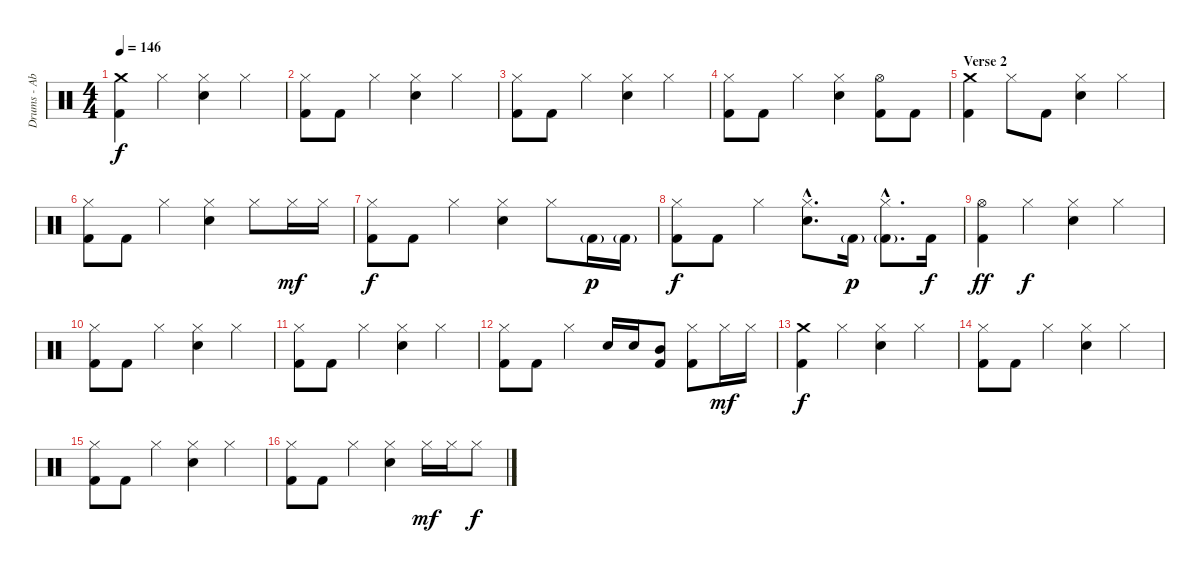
\track ("Drums - Abe Cunningham" "Drums - Ab") {instrument percussion}
\staff {score}
\articulation defaults
\ts (4 4)
\tempo 146
\clef neutral
\ks c
("Crash medium (hit)" "Kick (hit) 2").4{dy f} "Hi-Hat (closed)".4 ("Hi-Hat (closed)" "Electric Snare (hit)").4 "Hi-Hat (closed)".4 |
("Hi-Hat (closed)" "Kick (hit) 2").8 "Kick (hit) 2".8 "Hi-Hat (closed)".4 ("Hi-Hat (closed)" "Electric Snare (hit)").4 "Hi-Hat (closed)".4 |
("Hi-Hat (closed)" "Kick (hit) 2").8 "Kick (hit) 2".8 "Hi-Hat (closed)".4 ("Hi-Hat (closed)" "Electric Snare (hit)").4 "Hi-Hat (closed)".4 |
("Hi-Hat (closed)" "Kick (hit) 2").8 "Kick (hit) 2".8 "Hi-Hat (closed)".4 ("Hi-Hat (closed)" "Electric Snare (hit)").4 ("Hi-Hat (open)" "Kick (hit) 2").8 "Kick (hit) 2".8 |
\section ("" "Verse 2")
("Crash medium (hit)" "Kick (hit) 2").4 "Hi-Hat (closed)".8 "Kick (hit) 2".8 ("Hi-Hat (closed)" "Electric Snare (hit)").4 "Hi-Hat (closed)".4 |
("Hi-Hat (closed)" "Kick (hit) 2").8 "Kick (hit) 2".8 "Hi-Hat (closed)".4 ("Hi-Hat (closed)" "Electric Snare (hit)").4 "Hi-Hat (closed)".8 "Hi-Hat (closed)".16{dy mf} "Hi-Hat (closed)".16 |
("Hi-Hat (closed)" "Kick (hit) 2").8{dy f} "Kick (hit) 2".8 "Hi-Hat (closed)".4 ("Hi-Hat (closed)" "Electric Snare (hit)").4 "Hi-Hat (closed)".8 "Kick (hit) 2"{g}.16{dy p} "Kick (hit) 2"{g}.16 |
("Hi-Hat (closed)" "Kick (hit) 2").8{dy f} "Kick (hit) 2".8 "Hi-Hat (closed)".4 ("Hi-Hat (closed)"{hac} "Electric Snare (hit)"{hac}).8{d} "Kick (hit) 2"{g}.16{dy p} ("Hi-Hat (closed)"{hac} "Kick (hit) 2"{g hac}).8{d} "Kick (hit) 2".16{dy f} |
("Hi-Hat (open)" "Kick (hit) 2").4{dy ff} "Hi-Hat (closed)".4{dy f} ("Hi-Hat (closed)" "Electric Snare (hit)").4 "Hi-Hat (closed)".4 |
("Hi-Hat (closed)" "Kick (hit) 2").8 "Kick (hit) 2".8 "Hi-Hat (closed)".4 ("Hi-Hat (closed)" "Electric Snare (hit)").4 "Hi-Hat (closed)".4 |
("Hi-Hat (closed)" "Kick (hit) 2").8 "Kick (hit) 2".8 "Hi-Hat (closed)".4 ("Hi-Hat (closed)" "Electric Snare (hit)").4 "Hi-Hat (closed)".4 |
("Hi-Hat (closed)" "Kick (hit) 2").8 "Kick (hit) 2".8 "Hi-Hat (closed)".4 "Electric Snare (hit)".16 "Electric Snare (hit)".16 ("Mid Tom (hit)" "Kick (hit) 2").8 ("Hi-Hat (closed)" "Kick (hit) 2").8 "Hi-Hat (closed)".16{dy mf} "Hi-Hat (closed)".16 |
("Crash medium (hit)" "Kick (hit) 2").4{dy f} "Hi-Hat (closed)".4 ("Hi-Hat (closed)" "Electric Snare (hit)").4 "Hi-Hat (closed)".4 |
("Hi-Hat (closed)" "Kick (hit) 2").8 "Kick (hit) 2".8 "Hi-Hat (closed)".4 ("Hi-Hat (closed)" "Electric Snare (hit)").4 "Hi-Hat (closed)".4 |
("Hi-Hat (closed)" "Kick (hit) 2").8 "Kick (hit) 2".8 "Hi-Hat (closed)".4 ("Hi-Hat (closed)" "Electric Snare (hit)").4 "Hi-Hat (closed)".4 |
("Hi-Hat (closed)" "Kick (hit) 2").8 "Kick (hit) 2".8 "Hi-Hat (closed)".4 ("Hi-Hat (closed)" "Electric Snare (hit)").4 "Hi-Hat (closed)".16{dy mf} "Hi-Hat (closed)".16 "Hi-Hat (closed)".8{dy f}
